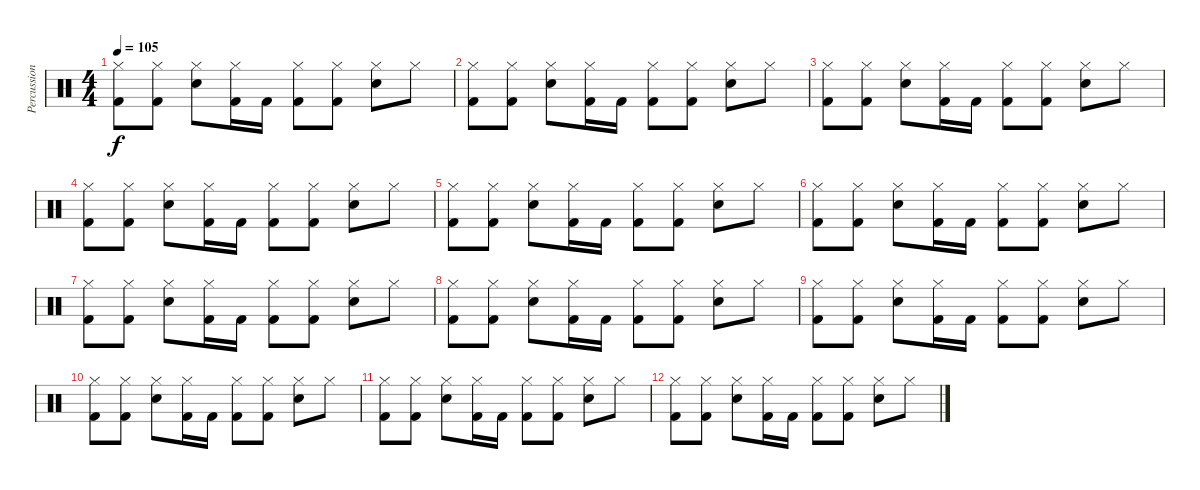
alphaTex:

\track ("Percussion" "Percussion") {instrument percussion}
\staff {score}
\articulation defaults
\ts (4 4)
\tempo 105
\clef neutral
\ks c
("Hi-Hat (closed)" "Kick (hit) 2").8{dy f} ("Hi-Hat (closed)" "Kick (hit) 2").8 ("Hi-Hat (closed)" "Electric Snare (hit)").8 ("Hi-Hat (closed)" "Kick (hit) 2").16 "Kick (hit) 2".16 ("Hi-Hat (closed)" "Kick (hit) 2").8 ("Hi-Hat (closed)" "Kick (hit) 2").8 ("Hi-Hat (closed)" "Electric Snare (hit)").8 "Hi-Hat (closed)".8 |
("Hi-Hat (closed)" "Kick (hit) 2").8 ("Hi-Hat (closed)" "Kick (hit) 2").8 ("Hi-Hat (closed)" "Electric Snare (hit)").8 ("Hi-Hat (closed)" "Kick (hit) 2").16 "Kick (hit) 2".16 ("Hi-Hat (closed)" "Kick (hit) 2").8 ("Hi-Hat (closed)" "Kick (hit) 2").8 ("Hi-Hat (closed)" "Electric Snare (hit)").8 "Hi-Hat (closed)".8 |
("Hi-Hat (closed)" "Kick (hit) 2").8 ("Hi-Hat (closed)" "Kick (hit) 2").8 ("Hi-Hat (closed)" "Electric Snare (hit)").8 ("Hi-Hat (closed)" "Kick (hit) 2").16 "Kick (hit) 2".16 ("Hi-Hat (closed)" "Kick (hit) 2").8 ("Hi-Hat (closed)" "Kick (hit) 2").8 ("Hi-Hat (closed)" "Electric Snare (hit)").8 "Hi-Hat (closed)".8 |
("Hi-Hat (closed)" "Kick (hit) 2").8 ("Hi-Hat (closed)" "Kick (hit) 2").8 ("Hi-Hat (closed)" "Electric Snare (hit)").8 ("Hi-Hat (closed)" "Kick (hit) 2").16 "Kick (hit) 2".16 ("Hi-Hat (closed)" "Kick (hit) 2").8 ("Hi-Hat (closed)" "Kick (hit) 2").8 ("Hi-Hat (closed)" "Electric Snare (hit)").8 "Hi-Hat (closed)".8 |
("Hi-Hat (closed)" "Kick (hit) 2").8 ("Hi-Hat (closed)" "Kick (hit) 2").8 ("Hi-Hat (closed)" "Electric Snare (hit)").8 ("Hi-Hat (closed)" "Kick (hit) 2").16 "Kick (hit) 2".16 ("Hi-Hat (closed)" "Kick (hit) 2").8 ("Hi-Hat (closed)" "Kick (hit) 2").8 ("Hi-Hat (closed)" "Electric Snare (hit)").8 "Hi-Hat (closed)".8 |
("Hi-Hat (closed)" "Kick (hit) 2").8 ("Hi-Hat (closed)" "Kick (hit) 2").8 ("Hi-Hat (closed)" "Electric Snare (hit)").8 ("Hi-Hat (closed)" "Kick (hit) 2").16 "Kick (hit) 2".16 ("Hi-Hat (closed)" "Kick (hit) 2").8 ("Hi-Hat (closed)" "Kick (hit) 2").8 ("Hi-Hat (closed)" "Electric Snare (hit)").8 "Hi-Hat (closed)".8 |
("Hi-Hat (closed)" "Kick (hit) 2").8 ("Hi-Hat (closed)" "Kick (hit) 2").8 ("Hi-Hat (closed)" "Electric Snare (hit)").8 ("Hi-Hat (closed)" "Kick (hit) 2").16 "Kick (hit) 2".16 ("Hi-Hat (closed)" "Kick (hit) 2").8 ("Hi-Hat (closed)" "Kick (hit) 2").8 ("Hi-Hat (closed)" "Electric Snare (hit)").8 "Hi-Hat (closed)".8 |
("Hi-Hat (closed)" "Kick (hit) 2").8 ("Hi-Hat (closed)" "Kick (hit) 2").8 ("Hi-Hat (closed)" "Electric Snare (hit)").8 ("Hi-Hat (closed)" "Kick (hit) 2").16 "Kick (hit) 2".16 ("Hi-Hat (closed)" "Kick (hit) 2").8 ("Hi-Hat (closed)" "Kick (hit) 2").8 ("Hi-Hat (closed)" "Electric Snare (hit)").8 "Hi-Hat (closed)".8 |
("Hi-Hat (closed)" "Kick (hit) 2").8 ("Hi-Hat (closed)" "Kick (hit) 2").8 ("Hi-Hat (closed)" "Electric Snare (hit)").8 ("Hi-Hat (closed)" "Kick (hit) 2").16 "Kick (hit) 2".16 ("Hi-Hat (closed)" "Kick (hit) 2").8 ("Hi-Hat (closed)" "Kick (hit) 2").8 ("Hi-Hat (closed)" "Electric Snare (hit)").8 "Hi-Hat (closed)".8 |
("Hi-Hat (closed)" "Kick (hit) 2").8 ("Hi-Hat (closed)" "Kick (hit) 2").8 ("Hi-Hat (closed)" "Electric Snare (hit)").8 ("Hi-Hat (closed)" "Kick (hit) 2").16 "Kick (hit) 2".16 ("Hi-Hat (closed)" "Kick (hit) 2").8 ("Hi-Hat (closed)" "Kick (hit) 2").8 ("Hi-Hat (closed)" "Electric Snare (hit)").8 "Hi-Hat (closed)".8 |
("Hi-Hat (closed)" "Kick (hit) 2").8 ("Hi-Hat (closed)" "Kick (hit) 2").8 ("Hi-Hat (closed)" "Electric Snare (hit)").8 ("Hi-Hat (closed)" "Kick (hit) 2").16 "Kick (hit) 2".16 ("Hi-Hat (closed)" "Kick (hit) 2").8 ("Hi-Hat (closed)" "Kick (hit) 2").8 ("Hi-Hat (closed)" "Electric Snare (hit)").8 "Hi-Hat (closed)".8 |
("Hi-Hat (closed)" "Kick (hit) 2").8 ("Hi-Hat (closed)" "Kick (hit) 2").8 ("Hi-Hat (closed)" "Electric Snare (hit)").8 ("Hi-Hat (closed)" "Kick (hit) 2").16 "Kick (hit) 2".16 ("Hi-Hat (closed)" "Kick (hit) 2").8 ("Hi-Hat (closed)" "Kick (hit) 2").8 ("Hi-Hat (closed)" "Electric Snare (hit)").8 "Hi-Hat (closed)".8
